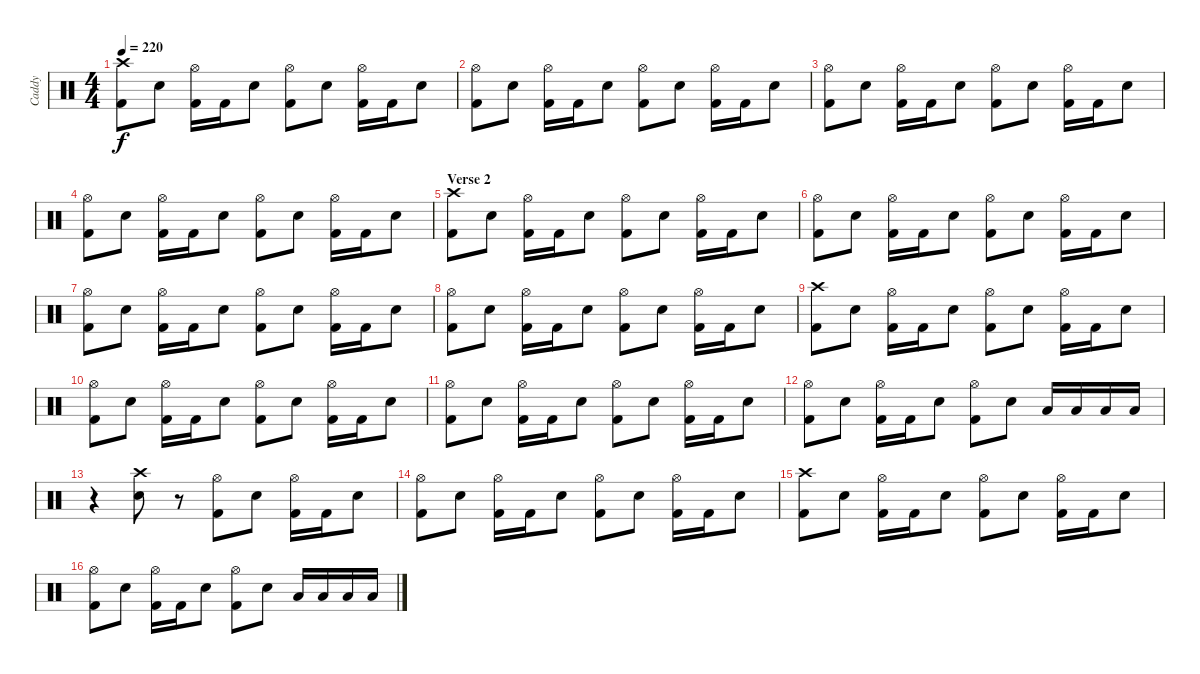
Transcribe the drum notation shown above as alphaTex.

\track ("Caddy" "Caddy") {instrument percussion}
\staff {score}
\articulation defaults
\ts (4 4)
\tempo 220
\clef neutral
\ks c
("Crash high (hit)" "Kick (hit) 2").8{dy f} "Electric Snare (hit)".8 ("Hi-Hat (open)" "Kick (hit) 2").16 "Kick (hit) 2".16 "Electric Snare (hit)".8 ("Hi-Hat (open)" "Kick (hit) 2").8 "Electric Snare (hit)".8 ("Hi-Hat (open)" "Kick (hit) 2").16 "Kick (hit) 2".16 "Electric Snare (hit)".8 |
("Hi-Hat (open)" "Kick (hit) 2").8 "Electric Snare (hit)".8 ("Hi-Hat (open)" "Kick (hit) 2").16 "Kick (hit) 2".16 "Electric Snare (hit)".8 ("Hi-Hat (open)" "Kick (hit) 2").8 "Electric Snare (hit)".8 ("Hi-Hat (open)" "Kick (hit) 2").16 "Kick (hit) 2".16 "Electric Snare (hit)".8 |
("Hi-Hat (open)" "Kick (hit) 2").8 "Electric Snare (hit)".8 ("Hi-Hat (open)" "Kick (hit) 2").16 "Kick (hit) 2".16 "Electric Snare (hit)".8 ("Hi-Hat (open)" "Kick (hit) 2").8 "Electric Snare (hit)".8 ("Hi-Hat (open)" "Kick (hit) 2").16 "Kick (hit) 2".16 "Electric Snare (hit)".8 |
("Hi-Hat (open)" "Kick (hit) 2").8 "Electric Snare (hit)".8 ("Hi-Hat (open)" "Kick (hit) 2").16 "Kick (hit) 2".16 "Electric Snare (hit)".8 ("Hi-Hat (open)" "Kick (hit) 2").8 "Electric Snare (hit)".8 ("Hi-Hat (open)" "Kick (hit) 2").16 "Kick (hit) 2".16 "Electric Snare (hit)".8 |
\section ("" "Verse 2")
("Crash high (hit)" "Kick (hit) 2").8 "Electric Snare (hit)".8 ("Hi-Hat (open)" "Kick (hit) 2").16 "Kick (hit) 2".16 "Electric Snare (hit)".8 ("Hi-Hat (open)" "Kick (hit) 2").8 "Electric Snare (hit)".8 ("Hi-Hat (open)" "Kick (hit) 2").16 "Kick (hit) 2".16 "Electric Snare (hit)".8 |
("Hi-Hat (open)" "Kick (hit) 2").8 "Electric Snare (hit)".8 ("Hi-Hat (open)" "Kick (hit) 2").16 "Kick (hit) 2".16 "Electric Snare (hit)".8 ("Hi-Hat (open)" "Kick (hit) 2").8 "Electric Snare (hit)".8 ("Hi-Hat (open)" "Kick (hit) 2").16 "Kick (hit) 2".16 "Electric Snare (hit)".8 |
("Hi-Hat (open)" "Kick (hit) 2").8 "Electric Snare (hit)".8 ("Hi-Hat (open)" "Kick (hit) 2").16 "Kick (hit) 2".16 "Electric Snare (hit)".8 ("Hi-Hat (open)" "Kick (hit) 2").8 "Electric Snare (hit)".8 ("Hi-Hat (open)" "Kick (hit) 2").16 "Kick (hit) 2".16 "Electric Snare (hit)".8 |
("Hi-Hat (open)" "Kick (hit) 2").8 "Electric Snare (hit)".8 ("Hi-Hat (open)" "Kick (hit) 2").16 "Kick (hit) 2".16 "Electric Snare (hit)".8 ("Hi-Hat (open)" "Kick (hit) 2").8 "Electric Snare (hit)".8 ("Hi-Hat (open)" "Kick (hit) 2").16 "Kick (hit) 2".16 "Electric Snare (hit)".8 |
("Crash high (hit)" "Kick (hit) 2").8 "Electric Snare (hit)".8 ("Hi-Hat (open)" "Kick (hit) 2").16 "Kick (hit) 2".16 "Electric Snare (hit)".8 ("Hi-Hat (open)" "Kick (hit) 2").8 "Electric Snare (hit)".8 ("Hi-Hat (open)" "Kick (hit) 2").16 "Kick (hit) 2".16 "Electric Snare (hit)".8 |
("Hi-Hat (open)" "Kick (hit) 2").8 "Electric Snare (hit)".8 ("Hi-Hat (open)" "Kick (hit) 2").16 "Kick (hit) 2".16 "Electric Snare (hit)".8 ("Hi-Hat (open)" "Kick (hit) 2").8 "Electric Snare (hit)".8 ("Hi-Hat (open)" "Kick (hit) 2").16 "Kick (hit) 2".16 "Electric Snare (hit)".8 |
("Hi-Hat (open)" "Kick (hit) 2").8 "Electric Snare (hit)".8 ("Hi-Hat (open)" "Kick (hit) 2").16 "Kick (hit) 2".16 "Electric Snare (hit)".8 ("Hi-Hat (open)" "Kick (hit) 2").8 "Electric Snare (hit)".8 ("Hi-Hat (open)" "Kick (hit) 2").16 "Kick (hit) 2".16 "Electric Snare (hit)".8 |
("Hi-Hat (open)" "Kick (hit) 2").8 "Electric Snare (hit)".8 ("Hi-Hat (open)" "Kick (hit) 2").16 "Kick (hit) 2".16 "Electric Snare (hit)".8 ("Hi-Hat (open)" "Kick (hit) 2").8 "Electric Snare (hit)".8 "Low Tom (hit)".16 "Low Tom (hit)".16 "Low Floor Tom (hit)".16 "Low Floor Tom (hit)".16 |
r.4 ("Crash high (hit)" "Electric Snare (hit)").8 r.8 ("Hi-Hat (open)" "Kick (hit) 2").8 "Electric Snare (hit)".8 ("Hi-Hat (open)" "Kick (hit) 2").16 "Kick (hit) 2".16 "Electric Snare (hit)".8 |
("Hi-Hat (open)" "Kick (hit) 2").8 "Electric Snare (hit)".8 ("Hi-Hat (open)" "Kick (hit) 2").16 "Kick (hit) 2".16 "Electric Snare (hit)".8 ("Hi-Hat (open)" "Kick (hit) 2").8 "Electric Snare (hit)".8 ("Hi-Hat (open)" "Kick (hit) 2").16 "Kick (hit) 2".16 "Electric Snare (hit)".8 |
("Crash high (hit)" "Kick (hit) 2").8 "Electric Snare (hit)".8 ("Hi-Hat (open)" "Kick (hit) 2").16 "Kick (hit) 2".16 "Electric Snare (hit)".8 ("Hi-Hat (open)" "Kick (hit) 2").8 "Electric Snare (hit)".8 ("Hi-Hat (open)" "Kick (hit) 2").16 "Kick (hit) 2".16 "Electric Snare (hit)".8 |
("Hi-Hat (open)" "Kick (hit) 2").8 "Electric Snare (hit)".8 ("Hi-Hat (open)" "Kick (hit) 2").16 "Kick (hit) 2".16 "Electric Snare (hit)".8 ("Hi-Hat (open)" "Kick (hit) 2").8 "Electric Snare (hit)".8 "Low Tom (hit)".16 "Low Tom (hit)".16 "Low Floor Tom (hit)".16 "Low Floor Tom (hit)".16
